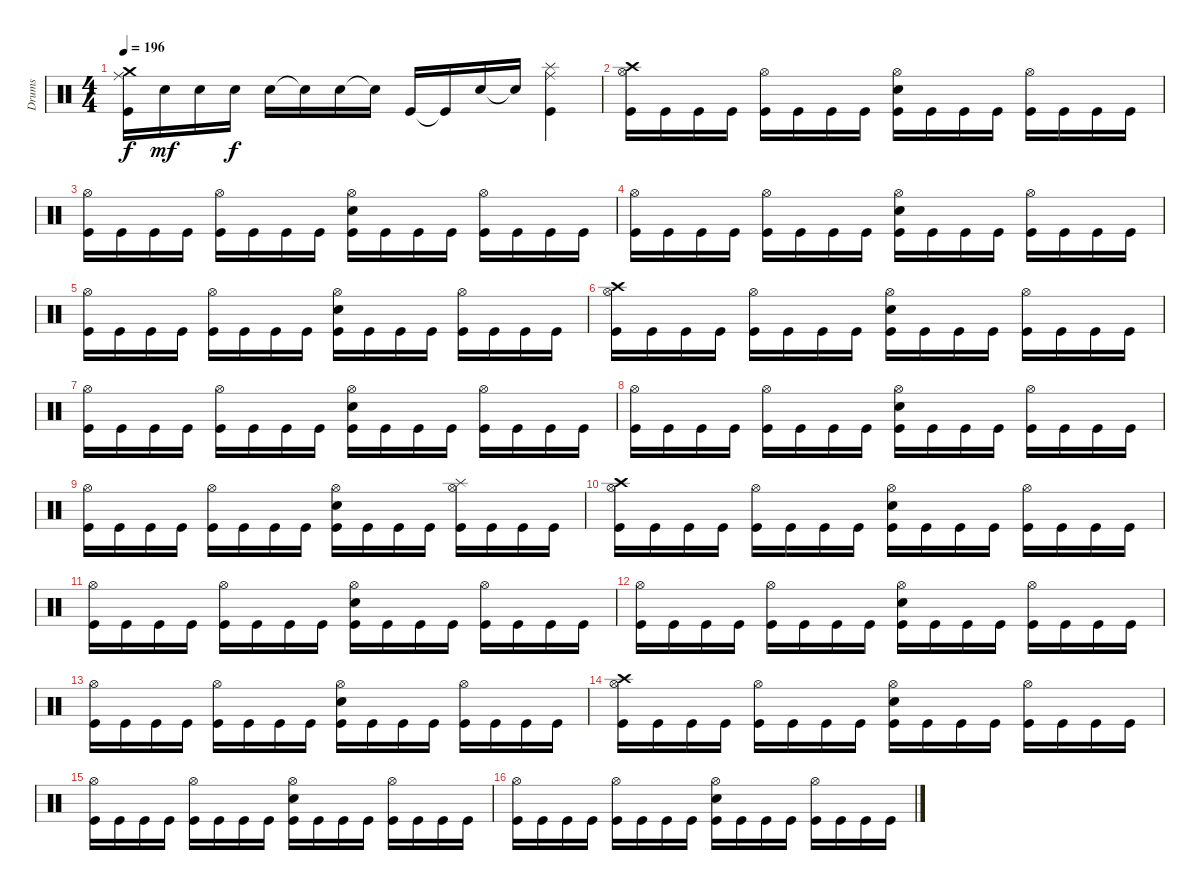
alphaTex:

\track ("Drums" "Drums") {instrument percussion}
\staff {score}
\articulation defaults
\ts (4 4)
\tempo 196
\clef neutral
\ks c
("Crash medium (hit)" "Ride (middle)" "Kick (hit)").16{dy f} "Electric Snare (hit)".16{dy mf} "Electric Snare (hit)".16 "Electric Snare (hit)".16{dy f} "Electric Snare (hit)".16 "Electric Snare (hit)"{t}.16 "Electric Snare (hit)".16 "Snare (hit)"{t}.16 "Kick (hit)".16 "Kick (hit)"{t}.16 "Electric Snare (hit)".16 "Snare (hit)"{t}.16 ("Ride (middle)" "Splash (hit)" "Kick (hit)").4 |
("Crash high (hit)" "Hi-Hat (open)" "Kick (hit)").16 "Kick (hit)".16 "Kick (hit)".16 "Kick (hit)".16 ("Hi-Hat (open)" "Kick (hit)").16 "Kick (hit)".16 "Kick (hit)".16 "Kick (hit)".16 ("Hi-Hat (open)" "Electric Snare (hit)" "Kick (hit)").16 "Kick (hit)".16 "Kick (hit)".16 "Kick (hit)".16 ("Hi-Hat (open)" "Kick (hit)").16 "Kick (hit)".16 "Kick (hit)".16 "Kick (hit)".16 |
("Hi-Hat (open)" "Kick (hit)").16 "Kick (hit)".16 "Kick (hit)".16 "Kick (hit)".16 ("Hi-Hat (open)" "Kick (hit)").16 "Kick (hit)".16 "Kick (hit)".16 "Kick (hit)".16 ("Hi-Hat (open)" "Electric Snare (hit)" "Kick (hit)").16 "Kick (hit)".16 "Kick (hit)".16 "Kick (hit)".16 ("Hi-Hat (open)" "Kick (hit)").16 "Kick (hit)".16 "Kick (hit)".16 "Kick (hit)".16 |
("Hi-Hat (open)" "Kick (hit)").16 "Kick (hit)".16 "Kick (hit)".16 "Kick (hit)".16 ("Hi-Hat (open)" "Kick (hit)").16 "Kick (hit)".16 "Kick (hit)".16 "Kick (hit)".16 ("Hi-Hat (open)" "Electric Snare (hit)" "Kick (hit)").16 "Kick (hit)".16 "Kick (hit)".16 "Kick (hit)".16 ("Hi-Hat (open)" "Kick (hit)").16 "Kick (hit)".16 "Kick (hit)".16 "Kick (hit)".16 |
("Hi-Hat (open)" "Kick (hit)").16 "Kick (hit)".16 "Kick (hit)".16 "Kick (hit)".16 ("Hi-Hat (open)" "Kick (hit)").16 "Kick (hit)".16 "Kick (hit)".16 "Kick (hit)".16 ("Hi-Hat (open)" "Electric Snare (hit)" "Kick (hit)").16 "Kick (hit)".16 "Kick (hit)".16 "Kick (hit)".16 ("Hi-Hat (open)" "Kick (hit)").16 "Kick (hit)".16 "Kick (hit)".16 "Kick (hit)".16 |
("Crash high (hit)" "Hi-Hat (open)" "Kick (hit)").16 "Kick (hit)".16 "Kick (hit)".16 "Kick (hit)".16 ("Hi-Hat (open)" "Kick (hit)").16 "Kick (hit)".16 "Kick (hit)".16 "Kick (hit)".16 ("Hi-Hat (open)" "Electric Snare (hit)" "Kick (hit)").16 "Kick (hit)".16 "Kick (hit)".16 "Kick (hit)".16 ("Hi-Hat (open)" "Kick (hit)").16 "Kick (hit)".16 "Kick (hit)".16 "Kick (hit)".16 |
("Hi-Hat (open)" "Kick (hit)").16 "Kick (hit)".16 "Kick (hit)".16 "Kick (hit)".16 ("Hi-Hat (open)" "Kick (hit)").16 "Kick (hit)".16 "Kick (hit)".16 "Kick (hit)".16 ("Hi-Hat (open)" "Electric Snare (hit)" "Kick (hit)").16 "Kick (hit)".16 "Kick (hit)".16 "Kick (hit)".16 ("Hi-Hat (open)" "Kick (hit)").16 "Kick (hit)".16 "Kick (hit)".16 "Kick (hit)".16 |
("Hi-Hat (open)" "Kick (hit)").16 "Kick (hit)".16 "Kick (hit)".16 "Kick (hit)".16 ("Hi-Hat (open)" "Kick (hit)").16 "Kick (hit)".16 "Kick (hit)".16 "Kick (hit)".16 ("Hi-Hat (open)" "Electric Snare (hit)" "Kick (hit)").16 "Kick (hit)".16 "Kick (hit)".16 "Kick (hit)".16 ("Hi-Hat (open)" "Kick (hit)").16 "Kick (hit)".16 "Kick (hit)".16 "Kick (hit)".16 |
("Hi-Hat (open)" "Kick (hit)").16 "Kick (hit)".16 "Kick (hit)".16 "Kick (hit)".16 ("Hi-Hat (open)" "Kick (hit)").16 "Kick (hit)".16 "Kick (hit)".16 "Kick (hit)".16 ("Hi-Hat (open)" "Electric Snare (hit)" "Kick (hit)").16 "Kick (hit)".16 "Kick (hit)".16 "Kick (hit)".16 ("Splash (hit)" "Hi-Hat (open)" "Kick (hit)").16 "Kick (hit)".16 "Kick (hit)".16 "Kick (hit)".16 |
("Crash high (hit)" "Hi-Hat (open)" "Kick (hit)").16 "Kick (hit)".16 "Kick (hit)".16 "Kick (hit)".16 ("Hi-Hat (open)" "Kick (hit)").16 "Kick (hit)".16 "Kick (hit)".16 "Kick (hit)".16 ("Hi-Hat (open)" "Electric Snare (hit)" "Kick (hit)").16 "Kick (hit)".16 "Kick (hit)".16 "Kick (hit)".16 ("Hi-Hat (open)" "Kick (hit)").16 "Kick (hit)".16 "Kick (hit)".16 "Kick (hit)".16 |
("Hi-Hat (open)" "Kick (hit)").16 "Kick (hit)".16 "Kick (hit)".16 "Kick (hit)".16 ("Hi-Hat (open)" "Kick (hit)").16 "Kick (hit)".16 "Kick (hit)".16 "Kick (hit)".16 ("Hi-Hat (open)" "Electric Snare (hit)" "Kick (hit)").16 "Kick (hit)".16 "Kick (hit)".16 "Kick (hit)".16 ("Hi-Hat (open)" "Kick (hit)").16 "Kick (hit)".16 "Kick (hit)".16 "Kick (hit)".16 |
("Hi-Hat (open)" "Kick (hit)").16 "Kick (hit)".16 "Kick (hit)".16 "Kick (hit)".16 ("Hi-Hat (open)" "Kick (hit)").16 "Kick (hit)".16 "Kick (hit)".16 "Kick (hit)".16 ("Hi-Hat (open)" "Electric Snare (hit)" "Kick (hit)").16 "Kick (hit)".16 "Kick (hit)".16 "Kick (hit)".16 ("Hi-Hat (open)" "Kick (hit)").16 "Kick (hit)".16 "Kick (hit)".16 "Kick (hit)".16 |
("Hi-Hat (open)" "Kick (hit)").16 "Kick (hit)".16 "Kick (hit)".16 "Kick (hit)".16 ("Hi-Hat (open)" "Kick (hit)").16 "Kick (hit)".16 "Kick (hit)".16 "Kick (hit)".16 ("Hi-Hat (open)" "Electric Snare (hit)" "Kick (hit)").16 "Kick (hit)".16 "Kick (hit)".16 "Kick (hit)".16 ("Hi-Hat (open)" "Kick (hit)").16 "Kick (hit)".16 "Kick (hit)".16 "Kick (hit)".16 |
("Crash high (hit)" "Hi-Hat (open)" "Kick (hit)").16 "Kick (hit)".16 "Kick (hit)".16 "Kick (hit)".16 ("Hi-Hat (open)" "Kick (hit)").16 "Kick (hit)".16 "Kick (hit)".16 "Kick (hit)".16 ("Hi-Hat (open)" "Electric Snare (hit)" "Kick (hit)").16 "Kick (hit)".16 "Kick (hit)".16 "Kick (hit)".16 ("Hi-Hat (open)" "Kick (hit)").16 "Kick (hit)".16 "Kick (hit)".16 "Kick (hit)".16 |
("Hi-Hat (open)" "Kick (hit)").16 "Kick (hit)".16 "Kick (hit)".16 "Kick (hit)".16 ("Hi-Hat (open)" "Kick (hit)").16 "Kick (hit)".16 "Kick (hit)".16 "Kick (hit)".16 ("Hi-Hat (open)" "Electric Snare (hit)" "Kick (hit)").16 "Kick (hit)".16 "Kick (hit)".16 "Kick (hit)".16 ("Hi-Hat (open)" "Kick (hit)").16 "Kick (hit)".16 "Kick (hit)".16 "Kick (hit)".16 |
("Hi-Hat (open)" "Kick (hit)").16 "Kick (hit)".16 "Kick (hit)".16 "Kick (hit)".16 ("Hi-Hat (open)" "Kick (hit)").16 "Kick (hit)".16 "Kick (hit)".16 "Kick (hit)".16 ("Hi-Hat (open)" "Electric Snare (hit)" "Kick (hit)").16 "Kick (hit)".16 "Kick (hit)".16 "Kick (hit)".16 ("Hi-Hat (open)" "Kick (hit)").16 "Kick (hit)".16 "Kick (hit)".16 "Kick (hit)".16
